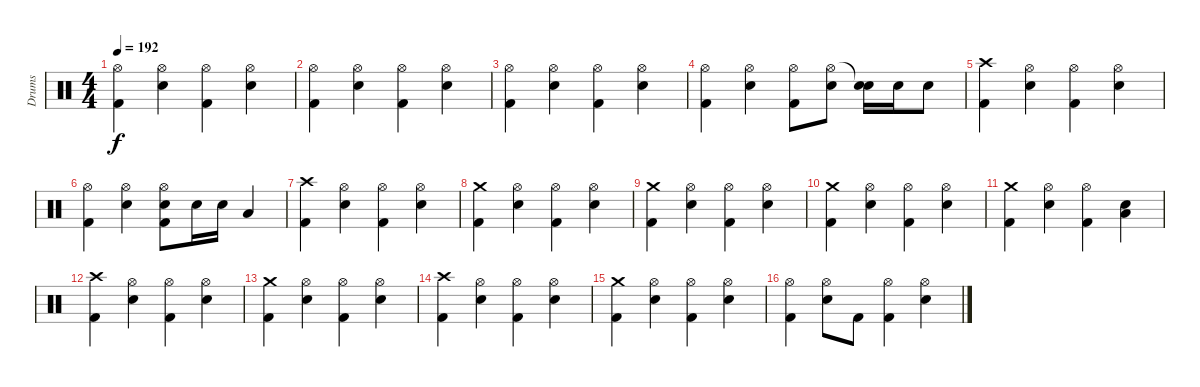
\track ("Drums" "Drums") {instrument percussion}
\staff {score}
\articulation defaults
\ts (4 4)
\tempo 192
\clef neutral
\ks c
("Hi-Hat (open)" "Kick (hit) 2").4{dy f} ("Hi-Hat (open)" "Electric Snare (hit)").4 ("Hi-Hat (open)" "Kick (hit) 2").4 ("Hi-Hat (open)" "Electric Snare (hit)").4 |
("Hi-Hat (open)" "Kick (hit) 2").4 ("Hi-Hat (open)" "Electric Snare (hit)").4 ("Hi-Hat (open)" "Kick (hit) 2").4 ("Hi-Hat (open)" "Electric Snare (hit)").4 |
("Hi-Hat (open)" "Kick (hit) 2").4 ("Hi-Hat (open)" "Electric Snare (hit)").4 ("Hi-Hat (open)" "Kick (hit) 2").4 ("Hi-Hat (open)" "Electric Snare (hit)").4 |
("Hi-Hat (open)" "Kick (hit) 2").4 ("Hi-Hat (open)" "Electric Snare (hit)").4 ("Hi-Hat (open)" "Kick (hit) 2").8 ("Hi-Hat (open)" "Electric Snare (hit)").8 ("Snare (hit)"{t} "Snare (hit) 2").16 "Snare (hit) 2".16 "Snare (hit) 2".8 |
("Crash high (hit)" "Kick (hit) 2").4 ("Hi-Hat (open)" "Electric Snare (hit)").4 ("Hi-Hat (open)" "Kick (hit) 2").4 ("Hi-Hat (open)" "Electric Snare (hit)").4 |
("Hi-Hat (open)" "Kick (hit) 2").4 ("Hi-Hat (open)" "Electric Snare (hit)").4 ("Hi-Hat (open)" "Electric Snare (hit)" "Kick (hit) 2").8 "Electric Snare (hit)".16 "Electric Snare (hit)".16 "Low Tom (hit)".4 |
("Crash high (hit)" "Kick (hit) 2").4 ("Hi-Hat (open)" "Electric Snare (hit)").4 ("Hi-Hat (open)" "Kick (hit) 2").4 ("Hi-Hat (open)" "Electric Snare (hit)").4 |
("Crash medium (hit)" "Kick (hit) 2").4 ("Hi-Hat (open)" "Electric Snare (hit)").4 ("Hi-Hat (open)" "Kick (hit) 2").4 ("Hi-Hat (open)" "Electric Snare (hit)").4 |
("Crash medium (hit)" "Kick (hit) 2").4 ("Hi-Hat (open)" "Electric Snare (hit)").4 ("Hi-Hat (open)" "Kick (hit) 2").4 ("Hi-Hat (open)" "Electric Snare (hit)").4 |
("Crash medium (hit)" "Kick (hit) 2").4 ("Hi-Hat (open)" "Electric Snare (hit)").4 ("Hi-Hat (open)" "Kick (hit) 2").4 ("Hi-Hat (open)" "Electric Snare (hit)").4 |
("Crash medium (hit)" "Kick (hit) 2").4 ("Hi-Hat (open)" "Electric Snare (hit)").4 ("Hi-Hat (open)" "Kick (hit) 2").4 ("Low Tom (hit)" "Electric Snare (hit)").4 |
("Crash high (hit)" "Kick (hit) 2").4 ("Hi-Hat (open)" "Electric Snare (hit)").4 ("Hi-Hat (open)" "Kick (hit) 2").4 ("Hi-Hat (open)" "Electric Snare (hit)").4 |
("Crash medium (hit)" "Kick (hit) 2").4 ("Hi-Hat (open)" "Electric Snare (hit)").4 ("Hi-Hat (open)" "Kick (hit) 2").4 ("Hi-Hat (open)" "Electric Snare (hit)").4 |
("Crash high (hit)" "Kick (hit) 2").4 ("Hi-Hat (open)" "Electric Snare (hit)").4 ("Hi-Hat (open)" "Kick (hit) 2").4 ("Hi-Hat (open)" "Electric Snare (hit)").4 |
("Crash medium (hit)" "Kick (hit) 2").4 ("Hi-Hat (open)" "Electric Snare (hit)").4 ("Hi-Hat (open)" "Kick (hit) 2").4 ("Hi-Hat (open)" "Electric Snare (hit)").4 |
("Hi-Hat (open)" "Kick (hit) 2").4 ("Hi-Hat (open)" "Electric Snare (hit)").8 "Kick (hit) 2".8 ("Hi-Hat (open)" "Kick (hit) 2").4 ("Hi-Hat (open)" "Electric Snare (hit)").4
